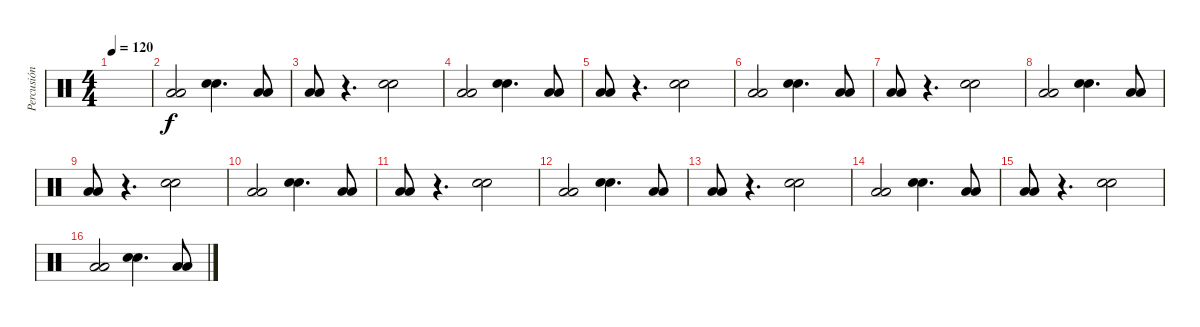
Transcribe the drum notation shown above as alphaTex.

\track ("Percusión" "Percusión") {instrument percussion}
\staff {score}
\articulation defaults
\ts (4 4)
\tempo 120
\clef neutral
\ks c
|
("Low Floor Tom (hit)" "Low Floor Tom (hit)").2 ("Electric Snare (hit)" "Electric Snare (hit)").4{d} ("Low Floor Tom (hit)" "Low Floor Tom (hit)").8 |
("Low Floor Tom (hit)" "Low Floor Tom (hit)").8 r.4{d} ("Electric Snare (hit)" "Electric Snare (hit)").2 |
("Low Floor Tom (hit)" "Low Floor Tom (hit)").2 ("Electric Snare (hit)" "Electric Snare (hit)").4{d} ("Low Floor Tom (hit)" "Low Floor Tom (hit)").8 |
("Low Floor Tom (hit)" "Low Floor Tom (hit)").8 r.4{d} ("Electric Snare (hit)" "Electric Snare (hit)").2 |
("Low Floor Tom (hit)" "Low Floor Tom (hit)").2 ("Electric Snare (hit)" "Electric Snare (hit)").4{d} ("Low Floor Tom (hit)" "Low Floor Tom (hit)").8 |
("Low Floor Tom (hit)" "Low Floor Tom (hit)").8 r.4{d} ("Electric Snare (hit)" "Electric Snare (hit)").2 |
("Low Floor Tom (hit)" "Low Floor Tom (hit)").2 ("Electric Snare (hit)" "Electric Snare (hit)").4{d} ("Low Floor Tom (hit)" "Low Floor Tom (hit)").8 |
("Low Floor Tom (hit)" "Low Floor Tom (hit)").8 r.4{d} ("Electric Snare (hit)" "Electric Snare (hit)").2 |
("Low Floor Tom (hit)" "Low Floor Tom (hit)").2 ("Electric Snare (hit)" "Electric Snare (hit)").4{d} ("Low Floor Tom (hit)" "Low Floor Tom (hit)").8 |
("Low Floor Tom (hit)" "Low Floor Tom (hit)").8 r.4{d} ("Electric Snare (hit)" "Electric Snare (hit)").2 |
("Low Floor Tom (hit)" "Low Floor Tom (hit)").2 ("Electric Snare (hit)" "Electric Snare (hit)").4{d} ("Low Floor Tom (hit)" "Low Floor Tom (hit)").8 |
("Low Floor Tom (hit)" "Low Floor Tom (hit)").8 r.4{d} ("Electric Snare (hit)" "Electric Snare (hit)").2 |
("Low Floor Tom (hit)" "Low Floor Tom (hit)").2 ("Electric Snare (hit)" "Electric Snare (hit)").4{d} ("Low Floor Tom (hit)" "Low Floor Tom (hit)").8 |
("Low Floor Tom (hit)" "Low Floor Tom (hit)").8 r.4{d} ("Electric Snare (hit)" "Electric Snare (hit)").2 |
("Low Floor Tom (hit)" "Low Floor Tom (hit)").2 ("Electric Snare (hit)" "Electric Snare (hit)").4{d} ("Low Floor Tom (hit)" "Low Floor Tom (hit)").8
